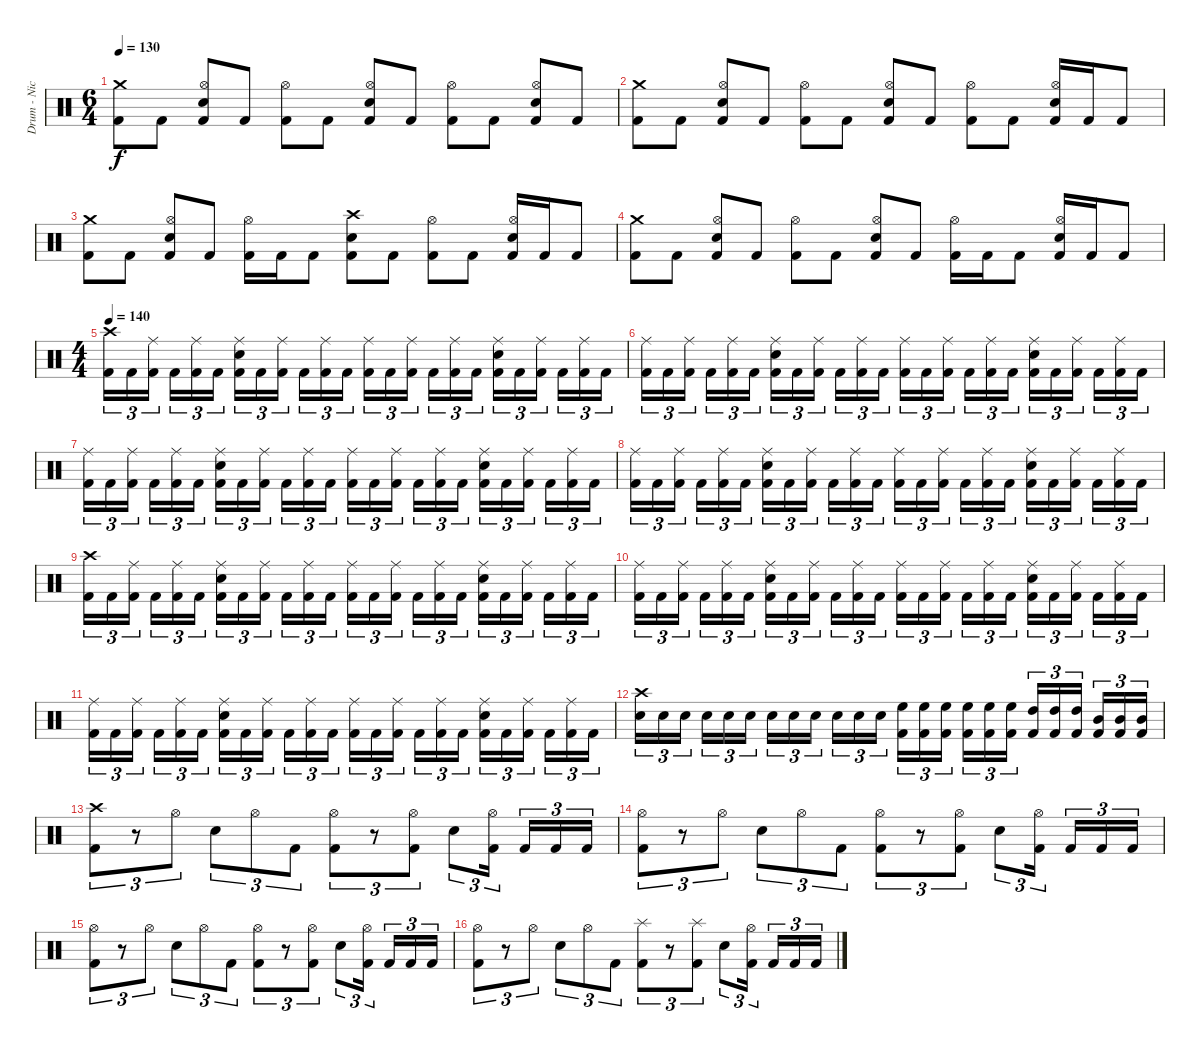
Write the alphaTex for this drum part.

\track ("Drum - Nicholas" "Drum - Nic") {instrument percussion}
\staff {score}
\articulation defaults
\ts (6 4)
\tempo 130
\clef neutral
\ks c
("Crash medium (hit)" "Kick (hit) 2").8{dy f} "Kick (hit) 2".8 ("Hi-Hat (open)" "Snare (hit) 2" "Kick (hit) 2").8 "Kick (hit) 2".8 ("Hi-Hat (open)" "Kick (hit) 2").8 "Kick (hit) 2".8 ("Hi-Hat (open)" "Snare (hit) 2" "Kick (hit) 2").8 "Kick (hit) 2".8 ("Hi-Hat (open)" "Kick (hit) 2").8 "Kick (hit) 2".8 ("Hi-Hat (open)" "Snare (hit) 2" "Kick (hit) 2").8 "Kick (hit) 2".8 |
("Crash medium (hit)" "Kick (hit) 2").8 "Kick (hit) 2".8 ("Hi-Hat (open)" "Snare (hit) 2" "Kick (hit) 2").8 "Kick (hit) 2".8 ("Hi-Hat (open)" "Kick (hit) 2").8 "Kick (hit) 2".8 ("Hi-Hat (open)" "Snare (hit) 2" "Kick (hit) 2").8 "Kick (hit) 2".8 ("Hi-Hat (open)" "Kick (hit) 2").8 "Kick (hit) 2".8 ("Hi-Hat (open)" "Snare (hit) 2" "Kick (hit) 2").16 "Kick (hit) 2".16 "Kick (hit) 2".8 |
("Crash medium (hit)" "Kick (hit) 2").8 "Kick (hit) 2".8 ("Hi-Hat (open)" "Snare (hit) 2" "Kick (hit) 2").8 "Kick (hit) 2".8 ("Hi-Hat (open)" "Kick (hit) 2").16 "Kick (hit) 2".16 "Kick (hit) 2".8 ("Crash high (hit)" "Snare (hit) 2" "Kick (hit) 2").8 "Kick (hit) 2".8 ("Hi-Hat (open)" "Kick (hit) 2").8 "Kick (hit) 2".8 ("Hi-Hat (open)" "Snare (hit) 2" "Kick (hit) 2").16 "Kick (hit) 2".16 "Kick (hit) 2".8 |
("Crash medium (hit)" "Kick (hit) 2").8 "Kick (hit) 2".8 ("Hi-Hat (open)" "Snare (hit) 2" "Kick (hit) 2").8 "Kick (hit) 2".8 ("Hi-Hat (open)" "Kick (hit) 2").8 "Kick (hit) 2".8 ("Hi-Hat (open)" "Snare (hit) 2" "Kick (hit) 2").8 "Kick (hit) 2".8 ("Hi-Hat (open)" "Kick (hit) 2").16 "Kick (hit) 2".16 "Kick (hit) 2".8 ("Hi-Hat (open)" "Snare (hit) 2" "Kick (hit) 2").16 "Kick (hit) 2".16 "Kick (hit) 2".8 |
\ts (4 4)
\tempo 140
("Crash high (hit)" "Kick (hit) 2").16{tu (3 2)} "Kick (hit) 2".16{tu (3 2)} ("Ride (middle)" "Kick (hit) 2").16{tu (3 2) beam splitsecondary} "Kick (hit) 2".16{tu (3 2)} ("Ride (middle)" "Kick (hit) 2").16{tu (3 2)} "Kick (hit) 2".16{tu (3 2)} ("Ride (middle)" "Snare (hit) 2" "Kick (hit) 2").16{tu (3 2)} "Kick (hit) 2".16{tu (3 2)} ("Ride (middle)" "Kick (hit) 2").16{tu (3 2) beam splitsecondary} "Kick (hit) 2".16{tu (3 2)} ("Ride (middle)" "Kick (hit) 2").16{tu (3 2)} "Kick (hit) 2".16{tu (3 2)} ("Ride (middle)" "Kick (hit) 2").16{tu (3 2)} "Kick (hit) 2".16{tu (3 2)} ("Ride (middle)" "Kick (hit) 2").16{tu (3 2) beam splitsecondary} "Kick (hit) 2".16{tu (3 2)} ("Ride (middle)" "Kick (hit) 2").16{tu (3 2)} "Kick (hit) 2".16{tu (3 2)} ("Ride (middle)" "Snare (hit) 2" "Kick (hit) 2").16{tu (3 2)} "Kick (hit) 2".16{tu (3 2)} ("Ride (middle)" "Kick (hit) 2").16{tu (3 2) beam splitsecondary} "Kick (hit) 2".16{tu (3 2)} ("Ride (middle)" "Kick (hit) 2").16{tu (3 2)} "Kick (hit) 2".16{tu (3 2)} |
("Ride (middle)" "Kick (hit) 2").16{tu (3 2)} "Kick (hit) 2".16{tu (3 2)} ("Ride (middle)" "Kick (hit) 2").16{tu (3 2) beam splitsecondary} "Kick (hit) 2".16{tu (3 2)} ("Ride (middle)" "Kick (hit) 2").16{tu (3 2)} "Kick (hit) 2".16{tu (3 2)} ("Ride (middle)" "Snare (hit) 2" "Kick (hit) 2").16{tu (3 2)} "Kick (hit) 2".16{tu (3 2)} ("Ride (middle)" "Kick (hit) 2").16{tu (3 2) beam splitsecondary} "Kick (hit) 2".16{tu (3 2)} ("Ride (middle)" "Kick (hit) 2").16{tu (3 2)} "Kick (hit) 2".16{tu (3 2)} ("Ride (middle)" "Kick (hit) 2").16{tu (3 2)} "Kick (hit) 2".16{tu (3 2)} ("Ride (middle)" "Kick (hit) 2").16{tu (3 2) beam splitsecondary} "Kick (hit) 2".16{tu (3 2)} ("Ride (middle)" "Kick (hit) 2").16{tu (3 2)} "Kick (hit) 2".16{tu (3 2)} ("Ride (middle)" "Snare (hit) 2" "Kick (hit) 2").16{tu (3 2)} "Kick (hit) 2".16{tu (3 2)} ("Ride (middle)" "Kick (hit) 2").16{tu (3 2) beam splitsecondary} "Kick (hit) 2".16{tu (3 2)} ("Ride (middle)" "Kick (hit) 2").16{tu (3 2)} "Kick (hit) 2".16{tu (3 2)} |
("Ride (middle)" "Kick (hit) 2").16{tu (3 2)} "Kick (hit) 2".16{tu (3 2)} ("Ride (middle)" "Kick (hit) 2").16{tu (3 2) beam splitsecondary} "Kick (hit) 2".16{tu (3 2)} ("Ride (middle)" "Kick (hit) 2").16{tu (3 2)} "Kick (hit) 2".16{tu (3 2)} ("Ride (middle)" "Snare (hit) 2" "Kick (hit) 2").16{tu (3 2)} "Kick (hit) 2".16{tu (3 2)} ("Ride (middle)" "Kick (hit) 2").16{tu (3 2) beam splitsecondary} "Kick (hit) 2".16{tu (3 2)} ("Ride (middle)" "Kick (hit) 2").16{tu (3 2)} "Kick (hit) 2".16{tu (3 2)} ("Ride (middle)" "Kick (hit) 2").16{tu (3 2)} "Kick (hit) 2".16{tu (3 2)} ("Ride (middle)" "Kick (hit) 2").16{tu (3 2) beam splitsecondary} "Kick (hit) 2".16{tu (3 2)} ("Ride (middle)" "Kick (hit) 2").16{tu (3 2)} "Kick (hit) 2".16{tu (3 2)} ("Ride (middle)" "Snare (hit) 2" "Kick (hit) 2").16{tu (3 2)} "Kick (hit) 2".16{tu (3 2)} ("Ride (middle)" "Kick (hit) 2").16{tu (3 2) beam splitsecondary} "Kick (hit) 2".16{tu (3 2)} ("Ride (middle)" "Kick (hit) 2").16{tu (3 2)} "Kick (hit) 2".16{tu (3 2)} |
("Ride (middle)" "Kick (hit) 2").16{tu (3 2)} "Kick (hit) 2".16{tu (3 2)} ("Ride (middle)" "Kick (hit) 2").16{tu (3 2) beam splitsecondary} "Kick (hit) 2".16{tu (3 2)} ("Ride (middle)" "Kick (hit) 2").16{tu (3 2)} "Kick (hit) 2".16{tu (3 2)} ("Ride (middle)" "Snare (hit) 2" "Kick (hit) 2").16{tu (3 2)} "Kick (hit) 2".16{tu (3 2)} ("Ride (middle)" "Kick (hit) 2").16{tu (3 2) beam splitsecondary} "Kick (hit) 2".16{tu (3 2)} ("Ride (middle)" "Kick (hit) 2").16{tu (3 2)} "Kick (hit) 2".16{tu (3 2)} ("Ride (middle)" "Kick (hit) 2").16{tu (3 2)} "Kick (hit) 2".16{tu (3 2)} ("Ride (middle)" "Kick (hit) 2").16{tu (3 2) beam splitsecondary} "Kick (hit) 2".16{tu (3 2)} ("Ride (middle)" "Kick (hit) 2").16{tu (3 2)} "Kick (hit) 2".16{tu (3 2)} ("Ride (middle)" "Snare (hit) 2" "Kick (hit) 2").16{tu (3 2)} "Kick (hit) 2".16{tu (3 2)} ("Ride (middle)" "Kick (hit) 2").16{tu (3 2) beam splitsecondary} "Kick (hit) 2".16{tu (3 2)} ("Ride (middle)" "Kick (hit) 2").16{tu (3 2)} "Kick (hit) 2".16{tu (3 2)} |
("Crash high (hit)" "Kick (hit) 2").16{tu (3 2)} "Kick (hit) 2".16{tu (3 2)} ("Ride (middle)" "Kick (hit) 2").16{tu (3 2) beam splitsecondary} "Kick (hit) 2".16{tu (3 2)} ("Ride (middle)" "Kick (hit) 2").16{tu (3 2)} "Kick (hit) 2".16{tu (3 2)} ("Ride (middle)" "Snare (hit) 2" "Kick (hit) 2").16{tu (3 2)} "Kick (hit) 2".16{tu (3 2)} ("Ride (middle)" "Kick (hit) 2").16{tu (3 2) beam splitsecondary} "Kick (hit) 2".16{tu (3 2)} ("Ride (middle)" "Kick (hit) 2").16{tu (3 2)} "Kick (hit) 2".16{tu (3 2)} ("Ride (middle)" "Kick (hit) 2").16{tu (3 2)} "Kick (hit) 2".16{tu (3 2)} ("Ride (middle)" "Kick (hit) 2").16{tu (3 2) beam splitsecondary} "Kick (hit) 2".16{tu (3 2)} ("Ride (middle)" "Kick (hit) 2").16{tu (3 2)} "Kick (hit) 2".16{tu (3 2)} ("Ride (middle)" "Snare (hit) 2" "Kick (hit) 2").16{tu (3 2)} "Kick (hit) 2".16{tu (3 2)} ("Ride (middle)" "Kick (hit) 2").16{tu (3 2) beam splitsecondary} "Kick (hit) 2".16{tu (3 2)} ("Ride (middle)" "Kick (hit) 2").16{tu (3 2)} "Kick (hit) 2".16{tu (3 2)} |
("Ride (middle)" "Kick (hit) 2").16{tu (3 2)} "Kick (hit) 2".16{tu (3 2)} ("Ride (middle)" "Kick (hit) 2").16{tu (3 2) beam splitsecondary} "Kick (hit) 2".16{tu (3 2)} ("Ride (middle)" "Kick (hit) 2").16{tu (3 2)} "Kick (hit) 2".16{tu (3 2)} ("Ride (middle)" "Snare (hit) 2" "Kick (hit) 2").16{tu (3 2)} "Kick (hit) 2".16{tu (3 2)} ("Ride (middle)" "Kick (hit) 2").16{tu (3 2) beam splitsecondary} "Kick (hit) 2".16{tu (3 2)} ("Ride (middle)" "Kick (hit) 2").16{tu (3 2)} "Kick (hit) 2".16{tu (3 2)} ("Ride (middle)" "Kick (hit) 2").16{tu (3 2)} "Kick (hit) 2".16{tu (3 2)} ("Ride (middle)" "Kick (hit) 2").16{tu (3 2) beam splitsecondary} "Kick (hit) 2".16{tu (3 2)} ("Ride (middle)" "Kick (hit) 2").16{tu (3 2)} "Kick (hit) 2".16{tu (3 2)} ("Ride (middle)" "Snare (hit) 2" "Kick (hit) 2").16{tu (3 2)} "Kick (hit) 2".16{tu (3 2)} ("Ride (middle)" "Kick (hit) 2").16{tu (3 2) beam splitsecondary} "Kick (hit) 2".16{tu (3 2)} ("Ride (middle)" "Kick (hit) 2").16{tu (3 2)} "Kick (hit) 2".16{tu (3 2)} |
("Ride (middle)" "Kick (hit) 2").16{tu (3 2)} "Kick (hit) 2".16{tu (3 2)} ("Ride (middle)" "Kick (hit) 2").16{tu (3 2) beam splitsecondary} "Kick (hit) 2".16{tu (3 2)} ("Ride (middle)" "Kick (hit) 2").16{tu (3 2)} "Kick (hit) 2".16{tu (3 2)} ("Ride (middle)" "Snare (hit) 2" "Kick (hit) 2").16{tu (3 2)} "Kick (hit) 2".16{tu (3 2)} ("Ride (middle)" "Kick (hit) 2").16{tu (3 2) beam splitsecondary} "Kick (hit) 2".16{tu (3 2)} ("Ride (middle)" "Kick (hit) 2").16{tu (3 2)} "Kick (hit) 2".16{tu (3 2)} ("Ride (middle)" "Kick (hit) 2").16{tu (3 2)} "Kick (hit) 2".16{tu (3 2)} ("Ride (middle)" "Kick (hit) 2").16{tu (3 2) beam splitsecondary} "Kick (hit) 2".16{tu (3 2)} ("Ride (middle)" "Kick (hit) 2").16{tu (3 2)} "Kick (hit) 2".16{tu (3 2)} ("Ride (middle)" "Snare (hit) 2" "Kick (hit) 2").16{tu (3 2)} "Kick (hit) 2".16{tu (3 2)} ("Ride (middle)" "Kick (hit) 2").16{tu (3 2) beam splitsecondary} "Kick (hit) 2".16{tu (3 2)} ("Ride (middle)" "Kick (hit) 2").16{tu (3 2)} "Kick (hit) 2".16{tu (3 2)} |
("Crash high (hit)" "Snare (hit) 2").16{tu (3 2)} "Snare (hit) 2".16{tu (3 2)} "Snare (hit) 2".16{tu (3 2) beam splitsecondary} "Snare (hit) 2".16{tu (3 2)} "Snare (hit) 2".16{tu (3 2)} "Snare (hit) 2".16{tu (3 2)} "Snare (hit) 2".16{tu (3 2)} "Snare (hit) 2".16{tu (3 2)} "Snare (hit) 2".16{tu (3 2) beam splitsecondary} "Snare (hit) 2".16{tu (3 2)} "Snare (hit) 2".16{tu (3 2)} "Snare (hit) 2".16{tu (3 2)} ("High Floor Tom (hit)" "Kick (hit) 2").16{tu (3 2)} ("High Floor Tom (hit)" "Kick (hit) 2").16{tu (3 2)} ("High Floor Tom (hit)" "Kick (hit) 2").16{tu (3 2) beam splitsecondary} ("High Floor Tom (hit)" "Kick (hit) 2").16{tu (3 2)} ("High Floor Tom (hit)" "Kick (hit) 2").16{tu (3 2)} ("High Floor Tom (hit)" "Kick (hit) 2").16{tu (3 2)} ("High Tom (hit)" "Kick (hit) 2").16{tu (3 2)} ("High Tom (hit)" "Kick (hit) 2").16{tu (3 2)} ("High Tom (hit)" "Kick (hit) 2").16{tu (3 2) beam splitsecondary} ("Mid Tom (hit)" "Kick (hit) 2").16{tu (3 2)} ("Mid Tom (hit)" "Kick (hit) 2").16{tu (3 2)} ("Mid Tom (hit)" "Kick (hit) 2").16{tu (3 2)} |
("Crash high (hit)" "Kick (hit) 2").8{tu (3 2)} r.8{tu (3 2)} "Hi-Hat (open)".8{tu (3 2)} "Snare (hit) 2".8{tu (3 2)} "Hi-Hat (open)".8{tu (3 2)} "Kick (hit) 2".8{tu (3 2)} ("Hi-Hat (open)" "Kick (hit) 2").8{tu (3 2)} r.8{tu (3 2)} ("Hi-Hat (open)" "Kick (hit) 2").8{tu (3 2)} "Snare (hit) 2".8{tu (3 2)} ("Hi-Hat (open)" "Kick (hit) 2").16{tu (3 2) beam splitsecondary} "Kick (hit) 2".16{tu (3 2)} "Kick (hit) 2".16{tu (3 2)} "Kick (hit) 2".16{tu (3 2)} |
("Hi-Hat (open)" "Kick (hit) 2").8{tu (3 2)} r.8{tu (3 2)} "Hi-Hat (open)".8{tu (3 2)} "Snare (hit) 2".8{tu (3 2)} "Hi-Hat (open)".8{tu (3 2)} "Kick (hit) 2".8{tu (3 2)} ("Hi-Hat (open)" "Kick (hit) 2").8{tu (3 2)} r.8{tu (3 2)} ("Hi-Hat (open)" "Kick (hit) 2").8{tu (3 2)} "Snare (hit) 2".8{tu (3 2)} ("Hi-Hat (open)" "Kick (hit) 2").16{tu (3 2) beam splitsecondary} "Kick (hit) 2".16{tu (3 2)} "Kick (hit) 2".16{tu (3 2)} "Kick (hit) 2".16{tu (3 2)} |
("Hi-Hat (open)" "Kick (hit) 2").8{tu (3 2)} r.8{tu (3 2)} "Hi-Hat (open)".8{tu (3 2)} "Snare (hit) 2".8{tu (3 2)} "Hi-Hat (open)".8{tu (3 2)} "Kick (hit) 2".8{tu (3 2)} ("Hi-Hat (open)" "Kick (hit) 2").8{tu (3 2)} r.8{tu (3 2)} ("Hi-Hat (open)" "Kick (hit) 2").8{tu (3 2)} "Snare (hit) 2".8{tu (3 2)} ("Hi-Hat (open)" "Kick (hit) 2").16{tu (3 2) beam splitsecondary} "Kick (hit) 2".16{tu (3 2)} "Kick (hit) 2".16{tu (3 2)} "Kick (hit) 2".16{tu (3 2)} |
("Hi-Hat (open)" "Kick (hit) 2").8{tu (3 2)} r.8{tu (3 2)} "Hi-Hat (open)".8{tu (3 2)} "Snare (hit) 2".8{tu (3 2)} "Hi-Hat (open)".8{tu (3 2)} "Kick (hit) 2".8{tu (3 2)} ("Splash (hit)" "Kick (hit) 2").8{tu (3 2)} r.8{tu (3 2)} ("Splash (hit)" "Kick (hit) 2").8{tu (3 2)} "Snare (hit) 2".8{tu (3 2)} ("Hi-Hat (open)" "Kick (hit) 2").16{tu (3 2) beam splitsecondary} "Kick (hit) 2".16{tu (3 2)} "Kick (hit) 2".16{tu (3 2)} "Kick (hit) 2".16{tu (3 2)}
